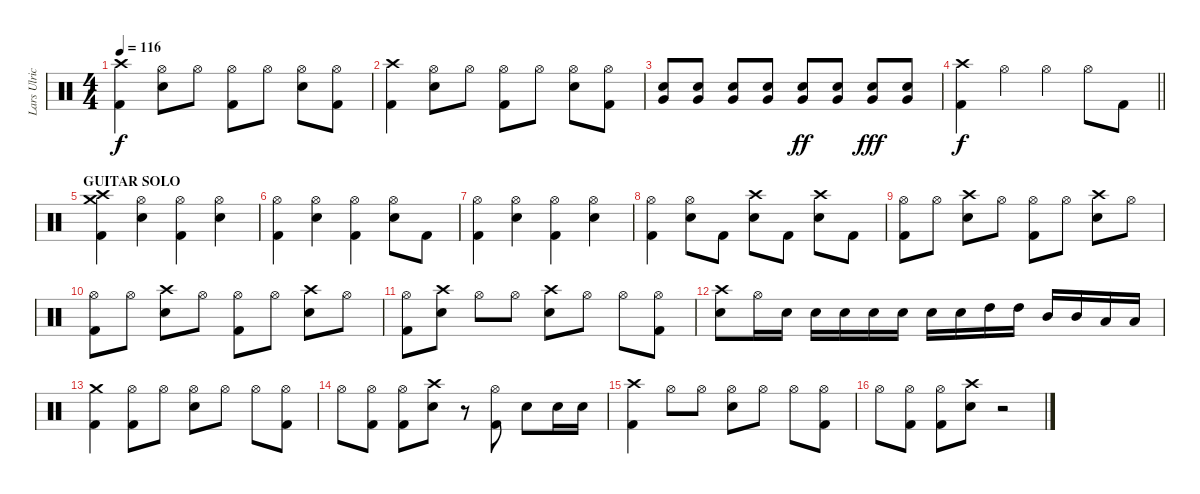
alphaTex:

\track ("Lars Ulrich - drums" "Lars Ulric") {instrument percussion}
\staff {score}
\articulation defaults
\ts (4 4)
\tempo 116
\clef neutral
\ks c
("Crash high (hit)" "Kick (hit) 2").4{dy f} ("Hi-Hat (open)" "Snare (hit) 2").8 "Hi-Hat (open)".8 ("Hi-Hat (open)" "Kick (hit) 2").8 "Hi-Hat (open)".8 ("Hi-Hat (open)" "Snare (hit) 2").8 ("Hi-Hat (open)" "Kick (hit) 2").8 |
("Crash high (hit)" "Kick (hit) 2").4 ("Hi-Hat (open)" "Snare (hit) 2").8 "Hi-Hat (open)".8 ("Hi-Hat (open)" "Kick (hit) 2").8 "Hi-Hat (open)".8 ("Hi-Hat (open)" "Snare (hit) 2").8 ("Hi-Hat (open)" "Kick (hit) 2").8 |
("Very Low Tom (hit)" "Snare (hit) 2").8 ("Very Low Tom (hit)" "Snare (hit) 2").8 ("Very Low Tom (hit)" "Snare (hit) 2").8 ("Very Low Tom (hit)" "Snare (hit) 2").8 ("Very Low Tom (hit)" "Snare (hit) 2").8{dy ff} ("Very Low Tom (hit)" "Snare (hit) 2").8 ("Very Low Tom (hit)" "Snare (hit) 2").8{dy fff} ("Very Low Tom (hit)" "Snare (hit) 2").8 |
\barLineRight lightlight
("Crash high (hit)" "Kick (hit) 2").4{dy f} "Hi-Hat (open)".4 "Hi-Hat (open)".4 "Hi-Hat (open)".8 "Kick (hit) 2".8 |
\section ("" "GUITAR SOLO")
("Crash high (hit)" "Crash medium (hit)" "Kick (hit) 2").4 ("Hi-Hat (open)" "Snare (hit) 2").4 ("Hi-Hat (open)" "Kick (hit) 2").4 ("Hi-Hat (open)" "Snare (hit) 2").4 |
("Hi-Hat (open)" "Kick (hit) 2").4 ("Hi-Hat (open)" "Snare (hit) 2").4 ("Hi-Hat (open)" "Kick (hit) 2").4 ("Hi-Hat (open)" "Snare (hit) 2").8 "Kick (hit) 2".8 |
("Hi-Hat (open)" "Kick (hit) 2").4 ("Hi-Hat (open)" "Snare (hit) 2").4 ("Hi-Hat (open)" "Kick (hit) 2").4 ("Hi-Hat (open)" "Snare (hit) 2").4 |
("Hi-Hat (open)" "Kick (hit) 2").4 ("Hi-Hat (open)" "Snare (hit) 2").8 "Kick (hit) 2".8 ("Crash high (hit)" "Snare (hit) 2").8 "Kick (hit) 2".8 ("Crash high (hit)" "Snare (hit) 2").8 "Kick (hit) 2".8 |
("Hi-Hat (open)" "Kick (hit) 2").8 "Hi-Hat (open)".8 ("Crash high (hit)" "Snare (hit) 2").8 "Hi-Hat (open)".8 ("Hi-Hat (open)" "Kick (hit) 2").8 "Hi-Hat (open)".8 ("Crash high (hit)" "Snare (hit) 2").8 "Hi-Hat (open)".8 |
("Hi-Hat (open)" "Kick (hit) 2").8 "Hi-Hat (open)".8 ("Crash high (hit)" "Snare (hit) 2").8 "Hi-Hat (open)".8 ("Hi-Hat (open)" "Kick (hit) 2").8 "Hi-Hat (open)".8 ("Crash high (hit)" "Snare (hit) 2").8 "Hi-Hat (open)".8 |
("Hi-Hat (open)" "Kick (hit) 2").8 ("Crash high (hit)" "Snare (hit) 2").8 "Hi-Hat (open)".8 "Hi-Hat (open)".8 ("Crash high (hit)" "Snare (hit) 2").8 "Hi-Hat (open)".8 "Hi-Hat (open)".8 ("Hi-Hat (open)" "Kick (hit) 2").8 |
("Crash high (hit)" "Snare (hit) 2").8 "Hi-Hat (open)".16 "Snare (hit) 2".16 "Snare (hit) 2".16 "Snare (hit) 2".16 "Snare (hit) 2".16 "Snare (hit) 2".16 "Snare (hit) 2".16 "Snare (hit) 2".16 "High Tom (hit)".16 "High Tom (hit)".16 "Mid Tom (hit)".16 "Mid Tom (hit)".16 "Low Tom (hit)".16 "Low Tom (hit)".16 |
("Crash medium (hit)" "Kick (hit) 2").4 ("Hi-Hat (open)" "Kick (hit) 2").8 "Hi-Hat (open)".8 ("Hi-Hat (open)" "Snare (hit) 2").8 "Hi-Hat (open)".8 "Hi-Hat (open)".8 ("Hi-Hat (open)" "Kick (hit) 2").8 |
"Hi-Hat (open)".8 ("Hi-Hat (open)" "Kick (hit) 2").8 ("Hi-Hat (open)" "Kick (hit) 2").8 ("Crash high (hit)" "Snare (hit) 2").8 r.8 ("Hi-Hat (open)" "Kick (hit) 2").8 "Snare (hit) 2".8 "Snare (hit) 2".16 "Snare (hit) 2".16 |
("Crash high (hit)" "Kick (hit) 2").4 "Hi-Hat (open)".8 "Hi-Hat (open)".8 ("Hi-Hat (open)" "Snare (hit) 2").8 "Hi-Hat (open)".8 "Hi-Hat (open)".8 ("Hi-Hat (open)" "Kick (hit) 2").8 |
"Hi-Hat (open)".8 ("Hi-Hat (open)" "Kick (hit) 2").8 ("Hi-Hat (open)" "Kick (hit) 2").8 ("Crash high (hit)" "Snare (hit) 2").8 r.2
